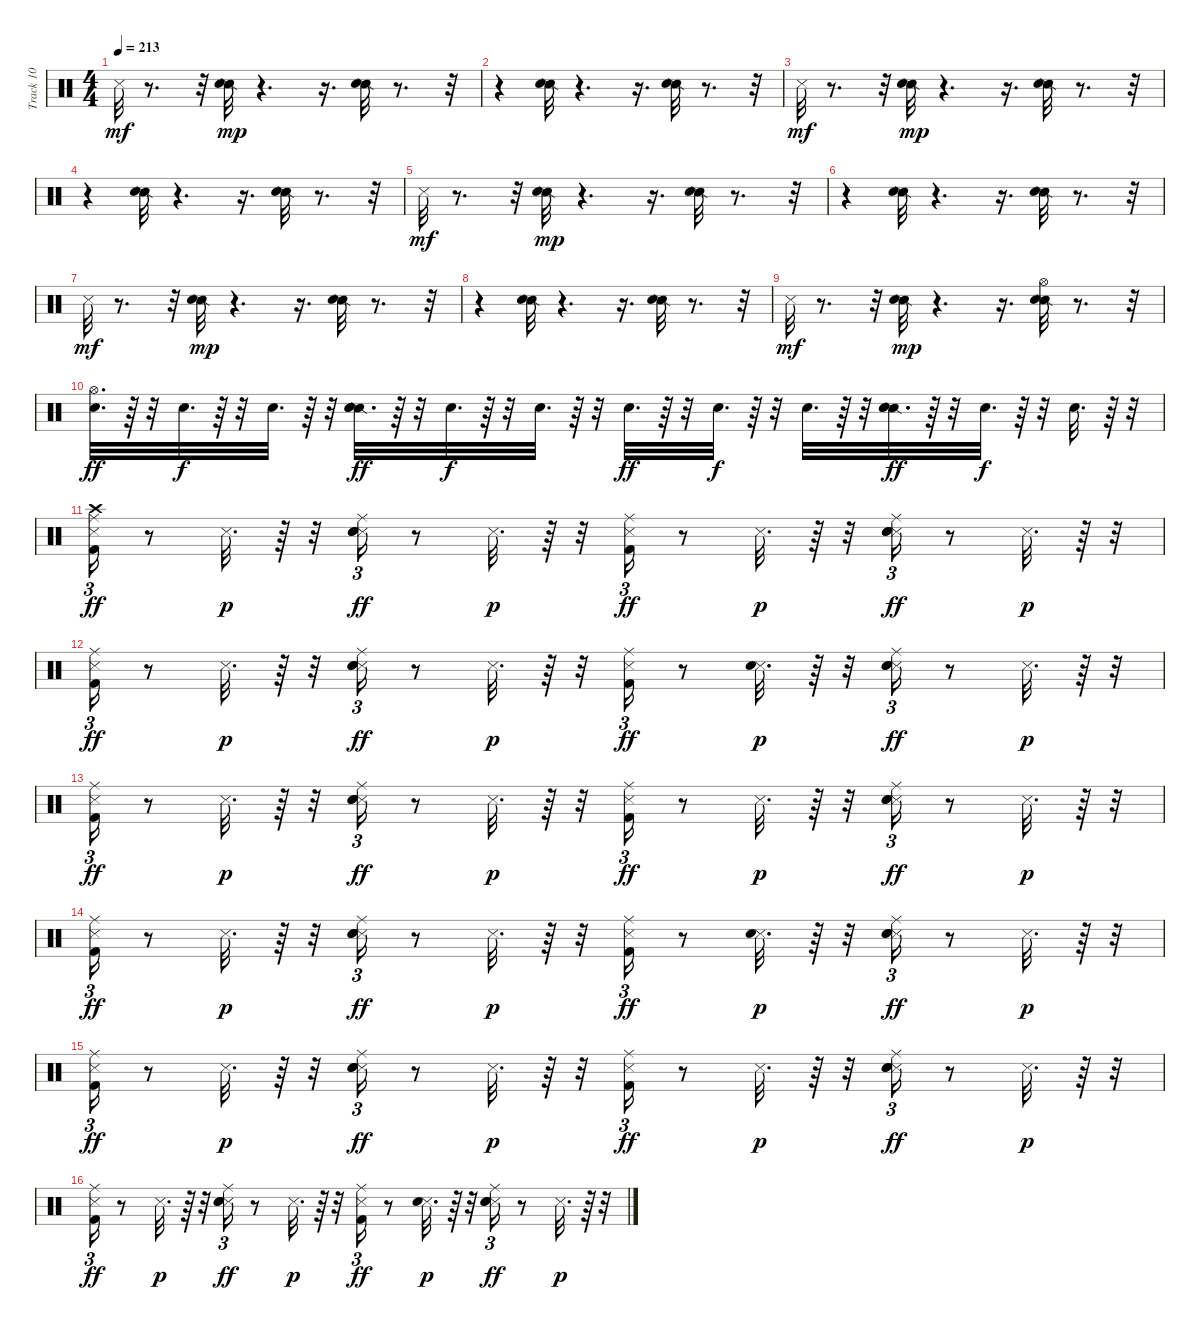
\track ("Track 10" "Track 10") {instrument percussion}
\staff {score}
\articulation defaults
\ts (4 4)
\tempo 213
\clef neutral
\ks c "Snare (side stick) 3".32{dy mf}
r.8{d} r.32 ("Snare (side stick) 2" "Hand Clap (hit)").32{dy mp} r.4{d} r.16{d} ("Snare (side stick) 2" "Hand Clap (hit)").32 r.8{d} r.32 |
r.4 ("Snare (side stick) 2" "Hand Clap (hit)").32 r.4{d} r.16{d} ("Snare (side stick) 2" "Hand Clap (hit)").32 r.8{d} r.32 |
"Snare (side stick) 3".32{dy mf} r.8{d} r.32 ("Snare (side stick) 2" "Hand Clap (hit)").32{dy mp} r.4{d} r.16{d} ("Snare (side stick) 2" "Hand Clap (hit)").32 r.8{d} r.32 |
r.4 ("Snare (side stick) 2" "Hand Clap (hit)").32 r.4{d} r.16{d} ("Snare (side stick) 2" "Hand Clap (hit)").32 r.8{d} r.32 |
"Snare (side stick) 3".32{dy mf} r.8{d} r.32 ("Snare (side stick) 2" "Hand Clap (hit)").32{dy mp} r.4{d} r.16{d} ("Snare (side stick) 2" "Hand Clap (hit)").32 r.8{d} r.32 |
r.4 ("Snare (side stick) 2" "Hand Clap (hit)").32 r.4{d} r.16{d} ("Snare (side stick) 2" "Hand Clap (hit)").32 r.8{d} r.32 |
"Snare (side stick) 3".32{dy mf} r.8{d} r.32 ("Snare (side stick) 2" "Hand Clap (hit)").32{dy mp} r.4{d} r.16{d} ("Snare (side stick) 2" "Hand Clap (hit)").32 r.8{d} r.32 |
r.4 ("Snare (side stick) 2" "Hand Clap (hit)").32 r.4{d} r.16{d} ("Snare (side stick) 2" "Hand Clap (hit)").32 r.8{d} r.32 |
"Snare (side stick) 3".32{dy mf} r.8{d} r.32 ("Snare (side stick) 2" "Hand Clap (hit)").32{dy mp} r.4{d} r.16{d} ("Snare (side stick) 2" "Hand Clap (hit)" "Hi-Hat (open)").32 r.8{d} r.32 |
("Electric Snare (hit)" "Hi-Hat (open)").32{d dy ff} r.64 r.32 "Electric Snare (hit)".32{d dy f} r.64 r.32 "Electric Snare (hit)".32{d} r.64 r.32 ("Snare (side stick) 2" "Hand Clap (hit)" "Electric Snare (hit)").32{d dy ff} r.64 r.32 "Electric Snare (hit)".32{d dy f} r.64 r.32 "Electric Snare (hit)".32{d} r.64 r.32 "Electric Snare (hit)".32{d dy ff} r.64 r.32 "Electric Snare (hit)".32{d dy f} r.64 r.32 "Electric Snare (hit)".32{d} r.64 r.32 ("Snare (side stick) 2" "Hand Clap (hit)" "Electric Snare (hit)").32{d dy ff} r.64 r.32 "Electric Snare (hit)".32{d dy f} r.64 r.32 "Electric Snare (hit)".32{d} r.64 r.32 |
("Kick (hit) 2" "Snare (side stick) 3" "Crash high (hit)" "Ride (middle)").16{tu (3 2) dy ff} r.8 "Snare (side stick) 3".32{d dy p} r.64 r.32 ("Snare (side stick) 3" "Hand Clap (hit)" "Electric Snare (hit)" "Ride (middle)").16{tu (3 2) dy ff} r.8 "Snare (side stick) 3".32{d dy p} r.64 r.32 ("Kick (hit) 2" "Snare (side stick) 3" "Ride (middle)").16{tu (3 2) dy ff} r.8 "Snare (side stick) 3".32{d dy p} r.64 r.32 ("Snare (side stick) 3" "Hand Clap (hit)" "Electric Snare (hit)" "Ride (middle)").16{tu (3 2) dy ff} r.8 "Snare (side stick) 3".32{d dy p} r.64 r.32 |
("Kick (hit) 2" "Snare (side stick) 3" "Ride (middle)").16{tu (3 2) dy ff} r.8 "Snare (side stick) 3".32{d dy p} r.64 r.32 ("Snare (side stick) 3" "Hand Clap (hit)" "Electric Snare (hit)" "Ride (middle)").16{tu (3 2) dy ff} r.8 "Snare (side stick) 3".32{d dy p} r.64 r.32 ("Kick (hit) 2" "Snare (side stick) 3" "Ride (middle)").16{tu (3 2) dy ff} r.8 ("Snare (side stick) 3" "Electric Snare (hit)").32{d dy p} r.64 r.32 ("Snare (side stick) 3" "Hand Clap (hit)" "Electric Snare (hit)" "Ride (middle)").16{tu (3 2) dy ff} r.8 "Snare (side stick) 3".32{d dy p} r.64 r.32 |
("Kick (hit) 2" "Snare (side stick) 3" "Ride (middle)").16{tu (3 2) dy ff} r.8 "Snare (side stick) 3".32{d dy p} r.64 r.32 ("Snare (side stick) 3" "Hand Clap (hit)" "Electric Snare (hit)" "Ride (middle)").16{tu (3 2) dy ff} r.8 "Snare (side stick) 3".32{d dy p} r.64 r.32 ("Kick (hit) 2" "Snare (side stick) 3" "Ride (middle)").16{tu (3 2) dy ff} r.8 "Snare (side stick) 3".32{d dy p} r.64 r.32 ("Snare (side stick) 3" "Hand Clap (hit)" "Electric Snare (hit)" "Ride (middle)").16{tu (3 2) dy ff} r.8 "Snare (side stick) 3".32{d dy p} r.64 r.32 |
("Kick (hit) 2" "Snare (side stick) 3" "Ride (middle)").16{tu (3 2) dy ff} r.8 "Snare (side stick) 3".32{d dy p} r.64 r.32 ("Snare (side stick) 3" "Hand Clap (hit)" "Electric Snare (hit)" "Ride (middle)").16{tu (3 2) dy ff} r.8 "Snare (side stick) 3".32{d dy p} r.64 r.32 ("Kick (hit) 2" "Snare (side stick) 3" "Ride (middle)").16{tu (3 2) dy ff} r.8 ("Snare (side stick) 3" "Electric Snare (hit)").32{d dy p} r.64 r.32 ("Snare (side stick) 3" "Hand Clap (hit)" "Electric Snare (hit)" "Ride (middle)").16{tu (3 2) dy ff} r.8 "Snare (side stick) 3".32{d dy p} r.64 r.32 |
("Kick (hit) 2" "Snare (side stick) 3" "Ride (middle)").16{tu (3 2) dy ff} r.8 "Snare (side stick) 3".32{d dy p} r.64 r.32 ("Snare (side stick) 3" "Hand Clap (hit)" "Electric Snare (hit)" "Ride (middle)").16{tu (3 2) dy ff} r.8 "Snare (side stick) 3".32{d dy p} r.64 r.32 ("Kick (hit) 2" "Snare (side stick) 3" "Ride (middle)").16{tu (3 2) dy ff} r.8 "Snare (side stick) 3".32{d dy p} r.64 r.32 ("Snare (side stick) 3" "Hand Clap (hit)" "Electric Snare (hit)" "Ride (middle)").16{tu (3 2) dy ff} r.8 "Snare (side stick) 3".32{d dy p} r.64 r.32 |
("Kick (hit) 2" "Snare (side stick) 3" "Ride (middle)").16{tu (3 2) dy ff} r.8 "Snare (side stick) 3".32{d dy p} r.64 r.32 ("Snare (side stick) 3" "Hand Clap (hit)" "Electric Snare (hit)" "Ride (middle)").16{tu (3 2) dy ff} r.8 "Snare (side stick) 3".32{d dy p} r.64 r.32 ("Kick (hit) 2" "Snare (side stick) 3" "Ride (middle)").16{tu (3 2) dy ff} r.8 ("Snare (side stick) 3" "Electric Snare (hit)").32{d dy p} r.64 r.32 ("Snare (side stick) 3" "Hand Clap (hit)" "Electric Snare (hit)" "Ride (middle)").16{tu (3 2) dy ff} r.8 "Snare (side stick) 3".32{d dy p} r.64 r.32
